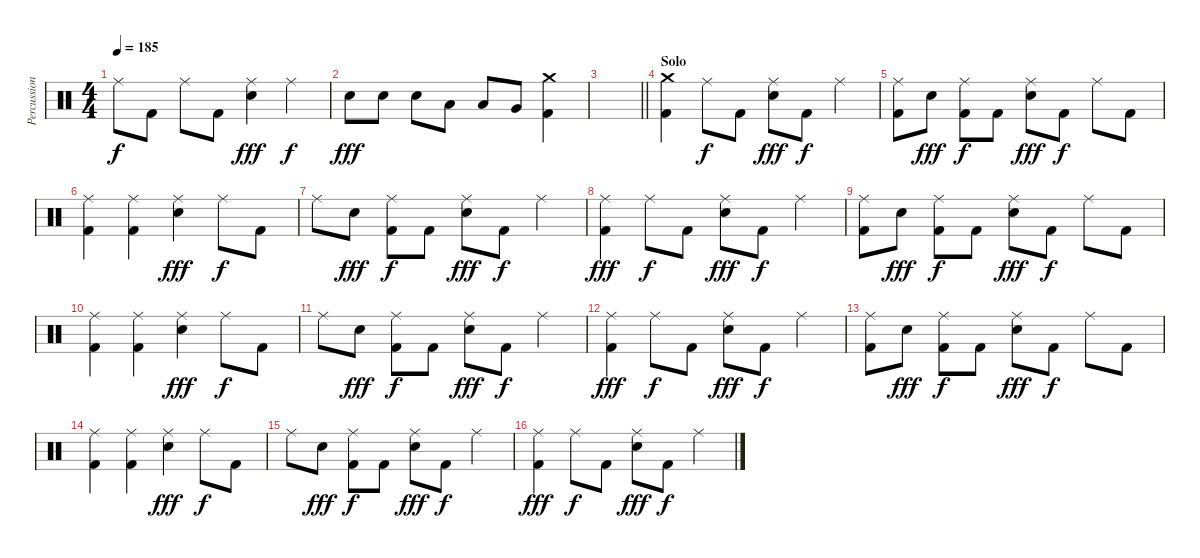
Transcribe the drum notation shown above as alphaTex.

\track ("Percussions" "Percussion") {instrument percussion}
\staff {score}
\articulation defaults
\ts (4 4)
\tempo 185
\clef neutral
\ks c "Ride (middle)".8{dy f} "Kick (hit) 2".8 "Ride (middle)".8 "Kick (hit) 2".8
("Electric Snare (hit)" "Ride (middle)").4{dy fff} "Ride (middle)".4{dy f} |
"Electric Snare (hit)".8{dy fff} "Electric Snare (hit)".8 "Electric Snare (hit)".8 "Low Tom (hit)".8 "Low Tom (hit)".8 "Very Low Tom (hit)".8 ("Crash medium (hit)" "Kick (hit) 2").4 |
\barLineRight lightlight
|
\section ("" "Solo")
("Crash medium (hit)" "Kick (hit) 2").4 "Ride (middle)".8{dy f} "Kick (hit) 2".8 ("Electric Snare (hit)" "Ride (middle)").8{dy fff} "Kick (hit) 2".8{dy f} "Ride (middle)".4 |
("Kick (hit) 2" "Ride (middle)").8 "Electric Snare (hit)".8{dy fff} ("Kick (hit) 2" "Ride (middle)").8{dy f} "Kick (hit) 2".8 ("Electric Snare (hit)" "Ride (middle)").8{dy fff} "Kick (hit) 2".8{dy f} "Ride (middle)".8 "Kick (hit) 2".8 |
("Kick (hit) 2" "Ride (middle)").4 ("Kick (hit) 2" "Ride (middle)").4 ("Electric Snare (hit)" "Ride (middle)").4{dy fff} "Ride (middle)".8{dy f} "Kick (hit) 2".8 |
"Ride (middle)".8 "Electric Snare (hit)".8{dy fff} ("Kick (hit) 2" "Ride (middle)").8{dy f} "Kick (hit) 2".8 ("Electric Snare (hit)" "Ride (middle)").8{dy fff} "Kick (hit) 2".8{dy f} "Ride (middle)".4 |
("Kick (hit) 2" "Ride (middle)").4{dy fff} "Ride (middle)".8{dy f} "Kick (hit) 2".8 ("Electric Snare (hit)" "Ride (middle)").8{dy fff} "Kick (hit) 2".8{dy f} "Ride (middle)".4 |
("Kick (hit) 2" "Ride (middle)").8 "Electric Snare (hit)".8{dy fff} ("Kick (hit) 2" "Ride (middle)").8{dy f} "Kick (hit) 2".8 ("Electric Snare (hit)" "Ride (middle)").8{dy fff} "Kick (hit) 2".8{dy f} "Ride (middle)".8 "Kick (hit) 2".8 |
("Kick (hit) 2" "Ride (middle)").4 ("Kick (hit) 2" "Ride (middle)").4 ("Electric Snare (hit)" "Ride (middle)").4{dy fff} "Ride (middle)".8{dy f} "Kick (hit) 2".8 |
"Ride (middle)".8 "Electric Snare (hit)".8{dy fff} ("Kick (hit) 2" "Ride (middle)").8{dy f} "Kick (hit) 2".8 ("Electric Snare (hit)" "Ride (middle)").8{dy fff} "Kick (hit) 2".8{dy f} "Ride (middle)".4 |
("Kick (hit) 2" "Ride (middle)").4{dy fff} "Ride (middle)".8{dy f} "Kick (hit) 2".8 ("Electric Snare (hit)" "Ride (middle)").8{dy fff} "Kick (hit) 2".8{dy f} "Ride (middle)".4 |
("Kick (hit) 2" "Ride (middle)").8 "Electric Snare (hit)".8{dy fff} ("Kick (hit) 2" "Ride (middle)").8{dy f} "Kick (hit) 2".8 ("Electric Snare (hit)" "Ride (middle)").8{dy fff} "Kick (hit) 2".8{dy f} "Ride (middle)".8 "Kick (hit) 2".8 |
("Kick (hit) 2" "Ride (middle)").4 ("Kick (hit) 2" "Ride (middle)").4 ("Electric Snare (hit)" "Ride (middle)").4{dy fff} "Ride (middle)".8{dy f} "Kick (hit) 2".8 |
"Ride (middle)".8 "Electric Snare (hit)".8{dy fff} ("Kick (hit) 2" "Ride (middle)").8{dy f} "Kick (hit) 2".8 ("Electric Snare (hit)" "Ride (middle)").8{dy fff} "Kick (hit) 2".8{dy f} "Ride (middle)".4 |
("Kick (hit) 2" "Ride (middle)").4{dy fff} "Ride (middle)".8{dy f} "Kick (hit) 2".8 ("Electric Snare (hit)" "Ride (middle)").8{dy fff} "Kick (hit) 2".8{dy f} "Ride (middle)".4
